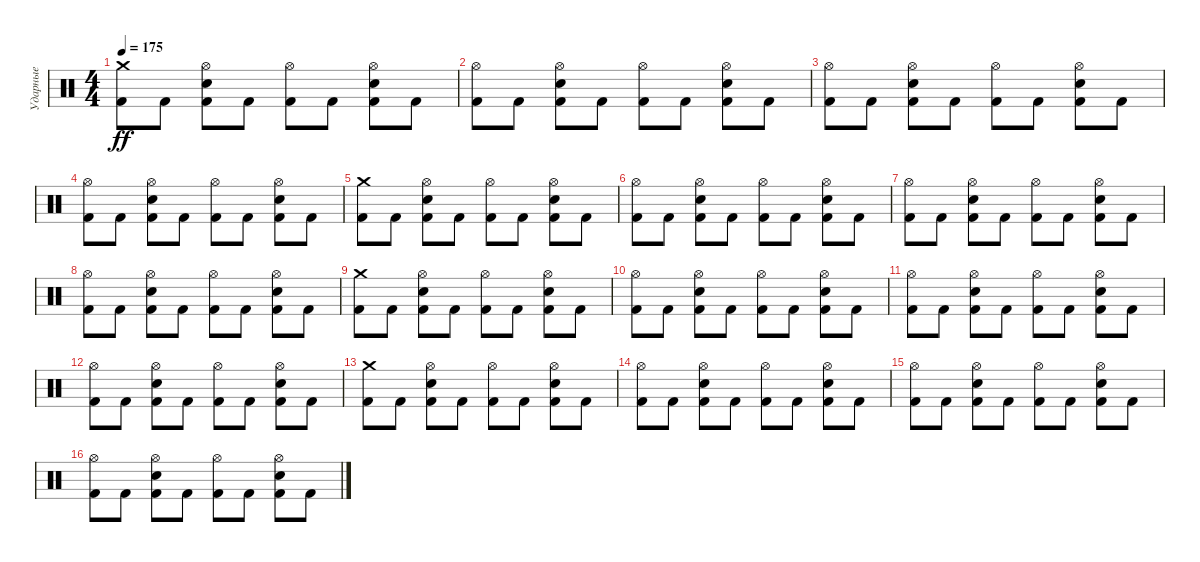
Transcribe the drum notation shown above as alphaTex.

\track ("Ударные" "Ударные") {instrument percussion}
\staff {score}
\articulation defaults
\ts (4 4)
\tempo 175
\clef neutral
\ks c
("Kick (hit) 2" "Crash medium (hit)").8{dy ff} "Kick (hit) 2".8 ("Kick (hit) 2" "Electric Snare (hit)" "Hi-Hat (open)").8 "Kick (hit) 2".8 ("Kick (hit) 2" "Hi-Hat (open)").8 "Kick (hit) 2".8 ("Kick (hit) 2" "Electric Snare (hit)" "Hi-Hat (open)").8 "Kick (hit) 2".8 |
("Kick (hit) 2" "Hi-Hat (open)").8 "Kick (hit) 2".8 ("Kick (hit) 2" "Electric Snare (hit)" "Hi-Hat (open)").8 "Kick (hit) 2".8 ("Kick (hit) 2" "Hi-Hat (open)").8 "Kick (hit) 2".8 ("Kick (hit) 2" "Electric Snare (hit)" "Hi-Hat (open)").8 "Kick (hit) 2".8 |
("Kick (hit) 2" "Hi-Hat (open)").8 "Kick (hit) 2".8 ("Kick (hit) 2" "Electric Snare (hit)" "Hi-Hat (open)").8 "Kick (hit) 2".8 ("Kick (hit) 2" "Hi-Hat (open)").8 "Kick (hit) 2".8 ("Kick (hit) 2" "Electric Snare (hit)" "Hi-Hat (open)").8 "Kick (hit) 2".8 |
("Kick (hit) 2" "Hi-Hat (open)").8 "Kick (hit) 2".8 ("Kick (hit) 2" "Electric Snare (hit)" "Hi-Hat (open)").8 "Kick (hit) 2".8 ("Kick (hit) 2" "Hi-Hat (open)").8 "Kick (hit) 2".8 ("Kick (hit) 2" "Electric Snare (hit)" "Hi-Hat (open)").8 "Kick (hit) 2".8 |
("Kick (hit) 2" "Crash medium (hit)").8 "Kick (hit) 2".8 ("Kick (hit) 2" "Electric Snare (hit)" "Hi-Hat (open)").8 "Kick (hit) 2".8 ("Kick (hit) 2" "Hi-Hat (open)").8 "Kick (hit) 2".8 ("Kick (hit) 2" "Electric Snare (hit)" "Hi-Hat (open)").8 "Kick (hit) 2".8 |
("Kick (hit) 2" "Hi-Hat (open)").8 "Kick (hit) 2".8 ("Kick (hit) 2" "Electric Snare (hit)" "Hi-Hat (open)").8 "Kick (hit) 2".8 ("Kick (hit) 2" "Hi-Hat (open)").8 "Kick (hit) 2".8 ("Kick (hit) 2" "Electric Snare (hit)" "Hi-Hat (open)").8 "Kick (hit) 2".8 |
("Kick (hit) 2" "Hi-Hat (open)").8 "Kick (hit) 2".8 ("Kick (hit) 2" "Electric Snare (hit)" "Hi-Hat (open)").8 "Kick (hit) 2".8 ("Kick (hit) 2" "Hi-Hat (open)").8 "Kick (hit) 2".8 ("Kick (hit) 2" "Electric Snare (hit)" "Hi-Hat (open)").8 "Kick (hit) 2".8 |
("Kick (hit) 2" "Hi-Hat (open)").8 "Kick (hit) 2".8 ("Kick (hit) 2" "Electric Snare (hit)" "Hi-Hat (open)").8 "Kick (hit) 2".8 ("Kick (hit) 2" "Hi-Hat (open)").8 "Kick (hit) 2".8 ("Kick (hit) 2" "Electric Snare (hit)" "Hi-Hat (open)").8 "Kick (hit) 2".8 |
("Kick (hit) 2" "Crash medium (hit)").8 "Kick (hit) 2".8 ("Kick (hit) 2" "Electric Snare (hit)" "Hi-Hat (open)").8 "Kick (hit) 2".8 ("Kick (hit) 2" "Hi-Hat (open)").8 "Kick (hit) 2".8 ("Kick (hit) 2" "Electric Snare (hit)" "Hi-Hat (open)").8 "Kick (hit) 2".8 |
("Kick (hit) 2" "Hi-Hat (open)").8 "Kick (hit) 2".8 ("Kick (hit) 2" "Electric Snare (hit)" "Hi-Hat (open)").8 "Kick (hit) 2".8 ("Kick (hit) 2" "Hi-Hat (open)").8 "Kick (hit) 2".8 ("Kick (hit) 2" "Electric Snare (hit)" "Hi-Hat (open)").8 "Kick (hit) 2".8 |
("Kick (hit) 2" "Hi-Hat (open)").8 "Kick (hit) 2".8 ("Kick (hit) 2" "Electric Snare (hit)" "Hi-Hat (open)").8 "Kick (hit) 2".8 ("Kick (hit) 2" "Hi-Hat (open)").8 "Kick (hit) 2".8 ("Kick (hit) 2" "Electric Snare (hit)" "Hi-Hat (open)").8 "Kick (hit) 2".8 |
("Kick (hit) 2" "Hi-Hat (open)").8 "Kick (hit) 2".8 ("Kick (hit) 2" "Electric Snare (hit)" "Hi-Hat (open)").8 "Kick (hit) 2".8 ("Kick (hit) 2" "Hi-Hat (open)").8 "Kick (hit) 2".8 ("Kick (hit) 2" "Electric Snare (hit)" "Hi-Hat (open)").8 "Kick (hit) 2".8 |
("Kick (hit) 2" "Crash medium (hit)").8 "Kick (hit) 2".8 ("Kick (hit) 2" "Electric Snare (hit)" "Hi-Hat (open)").8 "Kick (hit) 2".8 ("Kick (hit) 2" "Hi-Hat (open)").8 "Kick (hit) 2".8 ("Kick (hit) 2" "Electric Snare (hit)" "Hi-Hat (open)").8 "Kick (hit) 2".8 |
("Kick (hit) 2" "Hi-Hat (open)").8 "Kick (hit) 2".8 ("Kick (hit) 2" "Electric Snare (hit)" "Hi-Hat (open)").8 "Kick (hit) 2".8 ("Kick (hit) 2" "Hi-Hat (open)").8 "Kick (hit) 2".8 ("Kick (hit) 2" "Electric Snare (hit)" "Hi-Hat (open)").8 "Kick (hit) 2".8 |
("Kick (hit) 2" "Hi-Hat (open)").8 "Kick (hit) 2".8 ("Kick (hit) 2" "Electric Snare (hit)" "Hi-Hat (open)").8 "Kick (hit) 2".8 ("Kick (hit) 2" "Hi-Hat (open)").8 "Kick (hit) 2".8 ("Kick (hit) 2" "Electric Snare (hit)" "Hi-Hat (open)").8 "Kick (hit) 2".8 |
("Kick (hit) 2" "Hi-Hat (open)").8 "Kick (hit) 2".8 ("Kick (hit) 2" "Electric Snare (hit)" "Hi-Hat (open)").8 "Kick (hit) 2".8 ("Kick (hit) 2" "Hi-Hat (open)").8 "Kick (hit) 2".8 ("Kick (hit) 2" "Electric Snare (hit)" "Hi-Hat (open)").8 "Kick (hit) 2".8
